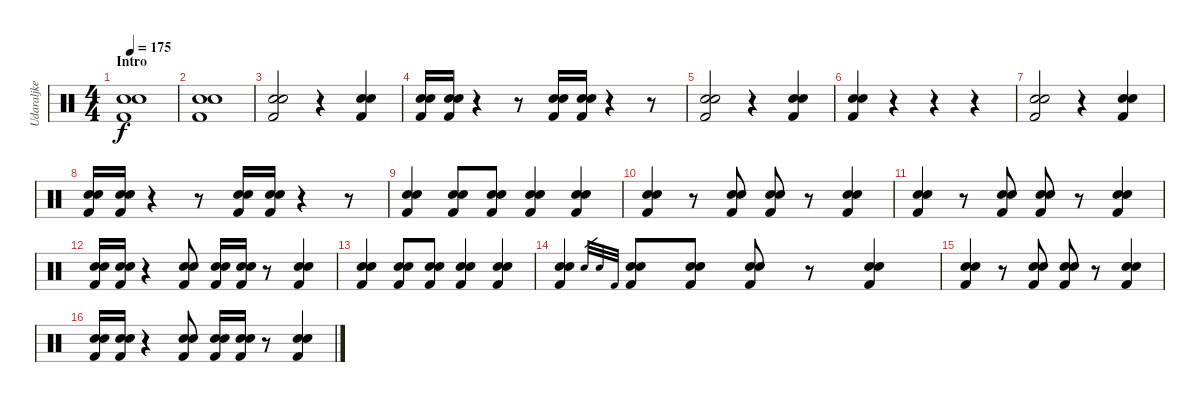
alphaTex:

\track ("Udaraljke" "Udaraljke") {instrument percussion}
\staff {score}
\articulation defaults
\ts (4 4)
\section ("" "Intro")
\tempo 175
\tempo 120
\tempo 175
\clef neutral
\ks c
("Electric Snare (hit)" "Snare (hit) 2" "Kick (hit) 2").1{dy f} |
("Electric Snare (hit)" "Snare (hit) 2" "Kick (hit) 2").1 |
("Electric Snare (hit)" "Snare (hit) 2" "Kick (hit) 2").2 r.4 ("Electric Snare (hit)" "Snare (hit) 2" "Kick (hit) 2").4 |
("Electric Snare (hit)" "Snare (hit) 2" "Kick (hit) 2").16 ("Electric Snare (hit)" "Snare (hit) 2" "Kick (hit) 2").16 r.4 r.8 ("Electric Snare (hit)" "Snare (hit) 2" "Kick (hit) 2").16 ("Electric Snare (hit)" "Snare (hit) 2" "Kick (hit) 2").16 r.4 r.8 |
("Electric Snare (hit)" "Snare (hit) 2" "Kick (hit) 2").2 r.4 ("Electric Snare (hit)" "Snare (hit) 2" "Kick (hit) 2").4 |
("Electric Snare (hit)" "Snare (hit) 2" "Kick (hit) 2").4 r.4 r.4 r.4 |
("Electric Snare (hit)" "Snare (hit) 2" "Kick (hit) 2").2 r.4 ("Electric Snare (hit)" "Snare (hit) 2" "Kick (hit) 2").4 |
("Electric Snare (hit)" "Snare (hit) 2" "Kick (hit) 2").16 ("Electric Snare (hit)" "Snare (hit) 2" "Kick (hit) 2").16 r.4 r.8 ("Electric Snare (hit)" "Snare (hit) 2" "Kick (hit) 2").16 ("Electric Snare (hit)" "Snare (hit) 2" "Kick (hit) 2").16 r.4 r.8 |
("Electric Snare (hit)" "Snare (hit) 2" "Kick (hit) 2").4 ("Electric Snare (hit)" "Snare (hit) 2" "Kick (hit) 2").8 ("Electric Snare (hit)" "Snare (hit) 2" "Kick (hit) 2").8 ("Electric Snare (hit)" "Snare (hit) 2" "Kick (hit) 2").4 ("Electric Snare (hit)" "Snare (hit) 2" "Kick (hit) 2").4 |
("Electric Snare (hit)" "Snare (hit) 2" "Kick (hit) 2").4 r.8 ("Electric Snare (hit)" "Snare (hit) 2" "Kick (hit) 2").8 ("Electric Snare (hit)" "Snare (hit) 2" "Kick (hit) 2").8 r.8 ("Electric Snare (hit)" "Snare (hit) 2" "Kick (hit) 2").4 |
("Electric Snare (hit)" "Snare (hit) 2" "Kick (hit) 2").4 r.8 ("Electric Snare (hit)" "Snare (hit) 2" "Kick (hit) 2").8 ("Electric Snare (hit)" "Snare (hit) 2" "Kick (hit) 2").8 r.8 ("Electric Snare (hit)" "Snare (hit) 2" "Kick (hit) 2").4 |
("Electric Snare (hit)" "Snare (hit) 2" "Kick (hit) 2").16 ("Electric Snare (hit)" "Snare (hit) 2" "Kick (hit) 2").16 r.4 ("Electric Snare (hit)" "Snare (hit) 2" "Kick (hit) 2").8 ("Electric Snare (hit)" "Snare (hit) 2" "Kick (hit) 2").16 ("Electric Snare (hit)" "Snare (hit) 2" "Kick (hit) 2").16 r.8 ("Electric Snare (hit)" "Snare (hit) 2" "Kick (hit) 2").4 |
("Electric Snare (hit)" "Snare (hit) 2" "Kick (hit) 2").4 ("Electric Snare (hit)" "Snare (hit) 2" "Kick (hit) 2").8 ("Electric Snare (hit)" "Snare (hit) 2" "Kick (hit) 2").8 ("Electric Snare (hit)" "Snare (hit) 2" "Kick (hit) 2").4 ("Electric Snare (hit)" "Snare (hit) 2" "Kick (hit) 2").4 |
("Electric Snare (hit)" "Snare (hit) 2" "Kick (hit) 2").4 "Electric Snare (hit)".32{gr} "Snare (hit) 2".32{gr} "Kick (hit) 2".32{gr} ("Electric Snare (hit)" "Snare (hit) 2" "Kick (hit) 2").8 ("Electric Snare (hit)" "Snare (hit) 2" "Kick (hit) 2").8 ("Electric Snare (hit)" "Snare (hit) 2" "Kick (hit) 2").8 r.8 ("Electric Snare (hit)" "Snare (hit) 2" "Kick (hit) 2").4 |
("Electric Snare (hit)" "Snare (hit) 2" "Kick (hit) 2").4 r.8 ("Electric Snare (hit)" "Snare (hit) 2" "Kick (hit) 2").8 ("Electric Snare (hit)" "Snare (hit) 2" "Kick (hit) 2").8 r.8 ("Electric Snare (hit)" "Snare (hit) 2" "Kick (hit) 2").4 |
("Electric Snare (hit)" "Snare (hit) 2" "Kick (hit) 2").16 ("Electric Snare (hit)" "Snare (hit) 2" "Kick (hit) 2").16 r.4 ("Electric Snare (hit)" "Snare (hit) 2" "Kick (hit) 2").8 ("Electric Snare (hit)" "Snare (hit) 2" "Kick (hit) 2").16 ("Electric Snare (hit)" "Snare (hit) 2" "Kick (hit) 2").16 r.8 ("Electric Snare (hit)" "Snare (hit) 2" "Kick (hit) 2").4
